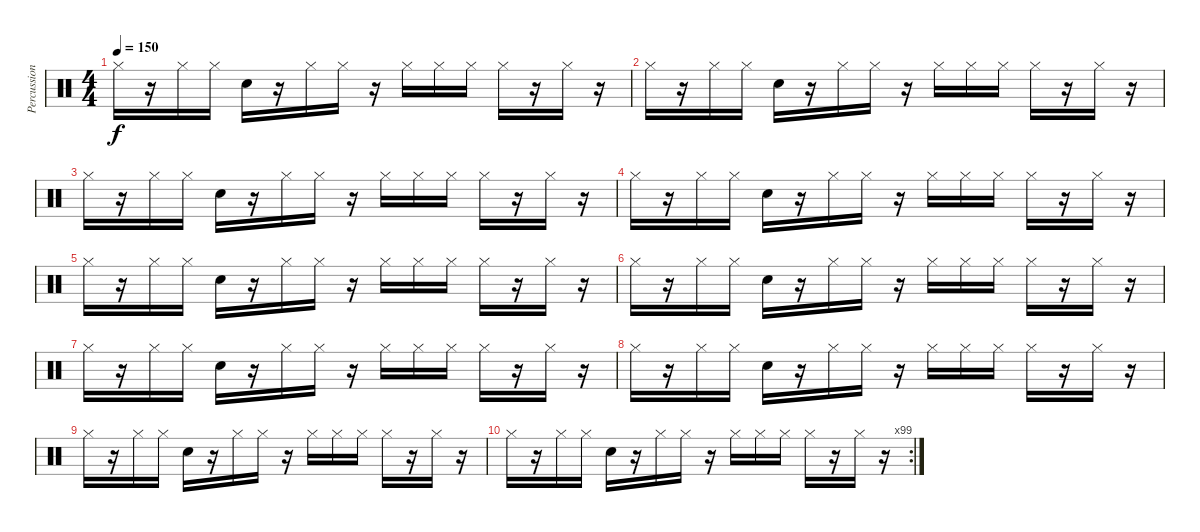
\track ("Percussion" "Percussion") {instrument percussion}
\staff {score}
\articulation defaults
\ts (4 4)
\tempo 150
\clef neutral
\ks c "Hi-Hat (closed)".16{dy f}
r.16 "Hi-Hat (closed)".16 "Hi-Hat (closed)".16 "Snare (hit) 2".16 r.16 "Hi-Hat (closed)".16 "Hi-Hat (closed)".16 r.16 "Hi-Hat (closed)".16 "Hi-Hat (closed)".16 "Hi-Hat (closed)".16 "Hi-Hat (closed)".16 r.16 "Hi-Hat (closed)".16 r.16 |
"Hi-Hat (closed)".16 r.16 "Hi-Hat (closed)".16 "Hi-Hat (closed)".16 "Snare (hit) 2".16 r.16 "Hi-Hat (closed)".16 "Hi-Hat (closed)".16 r.16 "Hi-Hat (closed)".16 "Hi-Hat (closed)".16 "Hi-Hat (closed)".16 "Hi-Hat (closed)".16 r.16 "Hi-Hat (closed)".16 r.16 |
"Hi-Hat (closed)".16 r.16 "Hi-Hat (closed)".16 "Hi-Hat (closed)".16 "Snare (hit) 2".16 r.16 "Hi-Hat (closed)".16 "Hi-Hat (closed)".16 r.16 "Hi-Hat (closed)".16 "Hi-Hat (closed)".16 "Hi-Hat (closed)".16 "Hi-Hat (closed)".16 r.16 "Hi-Hat (closed)".16 r.16 |
"Hi-Hat (closed)".16 r.16 "Hi-Hat (closed)".16 "Hi-Hat (closed)".16 "Snare (hit) 2".16 r.16 "Hi-Hat (closed)".16 "Hi-Hat (closed)".16 r.16 "Hi-Hat (closed)".16 "Hi-Hat (closed)".16 "Hi-Hat (closed)".16 "Hi-Hat (closed)".16 r.16 "Hi-Hat (closed)".16 r.16 |
"Hi-Hat (closed)".16 r.16 "Hi-Hat (closed)".16 "Hi-Hat (closed)".16 "Snare (hit) 2".16 r.16 "Hi-Hat (closed)".16 "Hi-Hat (closed)".16 r.16 "Hi-Hat (closed)".16 "Hi-Hat (closed)".16 "Hi-Hat (closed)".16 "Hi-Hat (closed)".16 r.16 "Hi-Hat (closed)".16 r.16 |
"Hi-Hat (closed)".16 r.16 "Hi-Hat (closed)".16 "Hi-Hat (closed)".16 "Snare (hit) 2".16 r.16 "Hi-Hat (closed)".16 "Hi-Hat (closed)".16 r.16 "Hi-Hat (closed)".16 "Hi-Hat (closed)".16 "Hi-Hat (closed)".16 "Hi-Hat (closed)".16 r.16 "Hi-Hat (closed)".16 r.16 |
"Hi-Hat (closed)".16 r.16 "Hi-Hat (closed)".16 "Hi-Hat (closed)".16 "Snare (hit) 2".16 r.16 "Hi-Hat (closed)".16 "Hi-Hat (closed)".16 r.16 "Hi-Hat (closed)".16 "Hi-Hat (closed)".16 "Hi-Hat (closed)".16 "Hi-Hat (closed)".16 r.16 "Hi-Hat (closed)".16 r.16 |
"Hi-Hat (closed)".16 r.16 "Hi-Hat (closed)".16 "Hi-Hat (closed)".16 "Snare (hit) 2".16 r.16 "Hi-Hat (closed)".16 "Hi-Hat (closed)".16 r.16 "Hi-Hat (closed)".16 "Hi-Hat (closed)".16 "Hi-Hat (closed)".16 "Hi-Hat (closed)".16 r.16 "Hi-Hat (closed)".16 r.16 |
"Hi-Hat (closed)".16 r.16 "Hi-Hat (closed)".16 "Hi-Hat (closed)".16 "Snare (hit) 2".16 r.16 "Hi-Hat (closed)".16 "Hi-Hat (closed)".16 r.16 "Hi-Hat (closed)".16 "Hi-Hat (closed)".16 "Hi-Hat (closed)".16 "Hi-Hat (closed)".16 r.16 "Hi-Hat (closed)".16 r.16 |
\rc 99 "Hi-Hat (closed)".16
r.16 "Hi-Hat (closed)".16 "Hi-Hat (closed)".16 "Snare (hit) 2".16 r.16 "Hi-Hat (closed)".16 "Hi-Hat (closed)".16 r.16 "Hi-Hat (closed)".16 "Hi-Hat (closed)".16 "Hi-Hat (closed)".16 "Hi-Hat (closed)".16 r.16 "Hi-Hat (closed)".16 r.16
